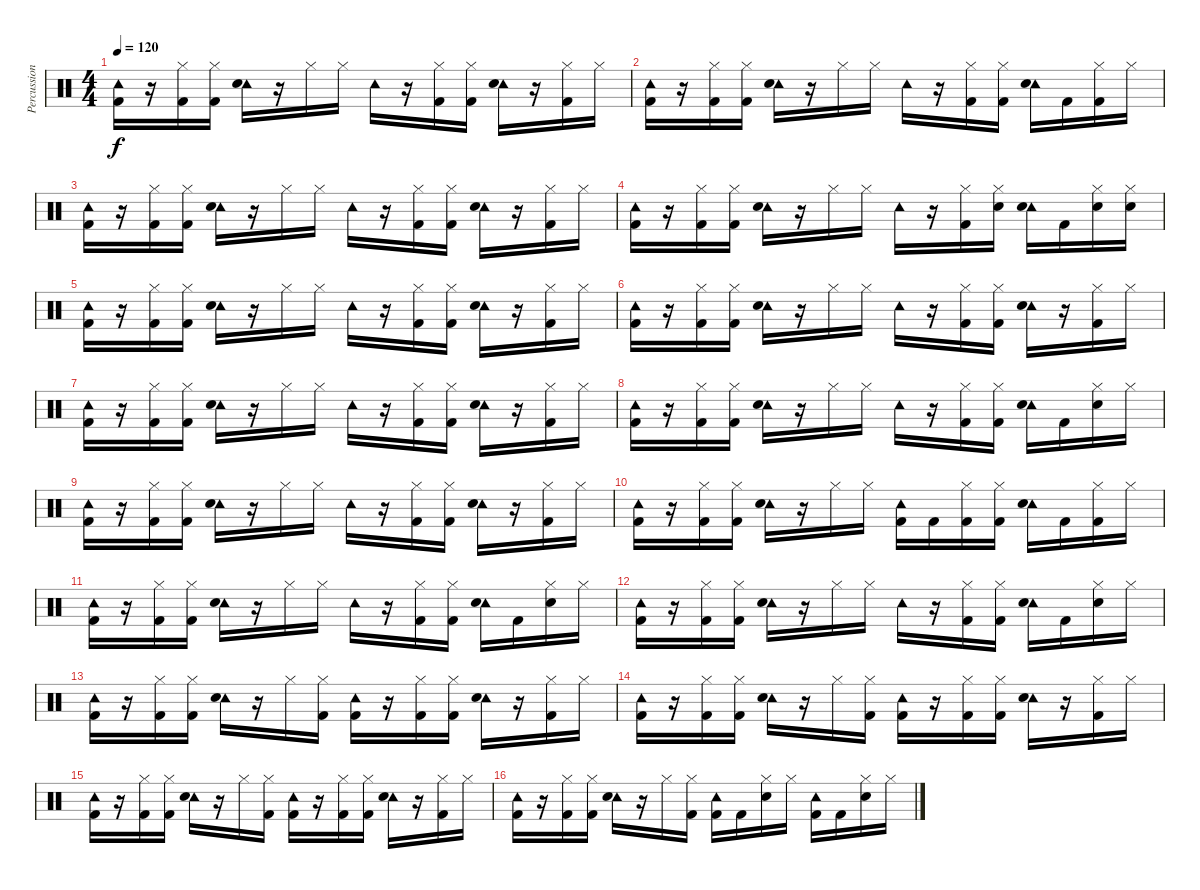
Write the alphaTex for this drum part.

\track ("Percussion" "Percussion") {instrument percussion}
\staff {score}
\articulation defaults
\ts (4 4)
\tempo 120
\clef neutral
\ks c
("Tambourine (hit)" "Kick (hit) 2").16{dy f} r.16 ("Hi-Hat (closed)" "Kick (hit) 2").16 ("Hi-Hat (closed)" "Kick (hit) 2").16 ("Tambourine (hit)" "Electric Snare (hit)").16 r.16 "Hi-Hat (closed)".16 "Hi-Hat (closed)".16 "Tambourine (hit)".16 r.16 ("Hi-Hat (closed)" "Kick (hit) 2").16 ("Hi-Hat (closed)" "Kick (hit) 2").16 ("Tambourine (hit)" "Electric Snare (hit)").16 r.16 ("Hi-Hat (closed)" "Kick (hit) 2").16 "Hi-Hat (closed)".16 |
("Tambourine (hit)" "Kick (hit) 2").16 r.16 ("Hi-Hat (closed)" "Kick (hit) 2").16 ("Hi-Hat (closed)" "Kick (hit) 2").16 ("Tambourine (hit)" "Electric Snare (hit)").16 r.16 "Hi-Hat (closed)".16 "Hi-Hat (closed)".16 "Tambourine (hit)".16 r.16 ("Hi-Hat (closed)" "Kick (hit) 2").16 ("Hi-Hat (closed)" "Kick (hit) 2").16 ("Tambourine (hit)" "Electric Snare (hit)").16 "Kick (hit) 2".16 ("Hi-Hat (closed)" "Kick (hit) 2").16 "Hi-Hat (closed)".16 |
("Tambourine (hit)" "Kick (hit) 2").16 r.16 ("Hi-Hat (closed)" "Kick (hit) 2").16 ("Hi-Hat (closed)" "Kick (hit) 2").16 ("Tambourine (hit)" "Electric Snare (hit)").16 r.16 "Hi-Hat (closed)".16 "Hi-Hat (closed)".16 "Tambourine (hit)".16 r.16 ("Hi-Hat (closed)" "Kick (hit) 2").16 ("Hi-Hat (closed)" "Kick (hit) 2").16 ("Tambourine (hit)" "Electric Snare (hit)").16 r.16 ("Hi-Hat (closed)" "Kick (hit) 2").16 "Hi-Hat (closed)".16 |
("Tambourine (hit)" "Kick (hit) 2").16 r.16 ("Hi-Hat (closed)" "Kick (hit) 2").16 ("Hi-Hat (closed)" "Kick (hit) 2").16 ("Tambourine (hit)" "Electric Snare (hit)").16 r.16 "Hi-Hat (closed)".16 "Hi-Hat (closed)".16 "Tambourine (hit)".16 r.16 ("Hi-Hat (closed)" "Kick (hit) 2").16 ("Hi-Hat (closed)" "Electric Snare (hit)").16 ("Tambourine (hit)" "Electric Snare (hit)").16 "Kick (hit) 2".16 ("Hi-Hat (closed)" "Electric Snare (hit)").16 ("Hi-Hat (closed)" "Electric Snare (hit)").16 |
("Tambourine (hit)" "Kick (hit) 2").16 r.16 ("Hi-Hat (closed)" "Kick (hit) 2").16 ("Hi-Hat (closed)" "Kick (hit) 2").16 ("Tambourine (hit)" "Electric Snare (hit)").16 r.16 "Hi-Hat (closed)".16 "Hi-Hat (closed)".16 "Tambourine (hit)".16 r.16 ("Hi-Hat (closed)" "Kick (hit) 2").16 ("Hi-Hat (closed)" "Kick (hit) 2").16 ("Tambourine (hit)" "Electric Snare (hit)").16 r.16 ("Hi-Hat (closed)" "Kick (hit) 2").16 "Hi-Hat (closed)".16 |
("Tambourine (hit)" "Kick (hit) 2").16 r.16 ("Hi-Hat (closed)" "Kick (hit) 2").16 ("Hi-Hat (closed)" "Kick (hit) 2").16 ("Tambourine (hit)" "Electric Snare (hit)").16 r.16 "Hi-Hat (closed)".16 "Hi-Hat (closed)".16 "Tambourine (hit)".16 r.16 ("Hi-Hat (closed)" "Kick (hit) 2").16 ("Hi-Hat (closed)" "Kick (hit) 2").16 ("Tambourine (hit)" "Electric Snare (hit)").16 r.16 ("Hi-Hat (closed)" "Kick (hit) 2").16 "Hi-Hat (closed)".16 |
("Tambourine (hit)" "Kick (hit) 2").16 r.16 ("Hi-Hat (closed)" "Kick (hit) 2").16 ("Hi-Hat (closed)" "Kick (hit) 2").16 ("Tambourine (hit)" "Electric Snare (hit)").16 r.16 "Hi-Hat (closed)".16 "Hi-Hat (closed)".16 "Tambourine (hit)".16 r.16 ("Hi-Hat (closed)" "Kick (hit) 2").16 ("Hi-Hat (closed)" "Kick (hit) 2").16 ("Tambourine (hit)" "Electric Snare (hit)").16 r.16 ("Hi-Hat (closed)" "Kick (hit) 2").16 "Hi-Hat (closed)".16 |
("Tambourine (hit)" "Kick (hit) 2").16 r.16 ("Hi-Hat (closed)" "Kick (hit) 2").16 ("Hi-Hat (closed)" "Kick (hit) 2").16 ("Tambourine (hit)" "Electric Snare (hit)").16 r.16 "Hi-Hat (closed)".16 "Hi-Hat (closed)".16 "Tambourine (hit)".16 r.16 ("Hi-Hat (closed)" "Kick (hit) 2").16 ("Hi-Hat (closed)" "Kick (hit) 2").16 ("Tambourine (hit)" "Electric Snare (hit)").16 "Kick (hit) 2".16 ("Hi-Hat (closed)" "Electric Snare (hit)").16 "Hi-Hat (closed)".16 |
("Tambourine (hit)" "Kick (hit) 2").16 r.16 ("Hi-Hat (closed)" "Kick (hit) 2").16 ("Hi-Hat (closed)" "Kick (hit) 2").16 ("Tambourine (hit)" "Electric Snare (hit)").16 r.16 "Hi-Hat (closed)".16 "Hi-Hat (closed)".16 "Tambourine (hit)".16 r.16 ("Hi-Hat (closed)" "Kick (hit) 2").16 ("Hi-Hat (closed)" "Kick (hit) 2").16 ("Tambourine (hit)" "Electric Snare (hit)").16 r.16 ("Hi-Hat (closed)" "Kick (hit) 2").16 "Hi-Hat (closed)".16 |
("Tambourine (hit)" "Kick (hit) 2").16 r.16 ("Hi-Hat (closed)" "Kick (hit) 2").16 ("Hi-Hat (closed)" "Kick (hit) 2").16 ("Tambourine (hit)" "Electric Snare (hit)").16 r.16 "Hi-Hat (closed)".16 "Hi-Hat (closed)".16 ("Tambourine (hit)" "Kick (hit) 2").16 "Kick (hit) 2".16 ("Hi-Hat (closed)" "Kick (hit) 2").16 ("Hi-Hat (closed)" "Kick (hit) 2").16 ("Tambourine (hit)" "Electric Snare (hit)").16 "Kick (hit) 2".16 ("Hi-Hat (closed)" "Kick (hit) 2").16 "Hi-Hat (closed)".16 |
("Tambourine (hit)" "Kick (hit) 2").16 r.16 ("Hi-Hat (closed)" "Kick (hit) 2").16 ("Hi-Hat (closed)" "Kick (hit) 2").16 ("Tambourine (hit)" "Electric Snare (hit)").16 r.16 "Hi-Hat (closed)".16 "Hi-Hat (closed)".16 "Tambourine (hit)".16 r.16 ("Hi-Hat (closed)" "Kick (hit) 2").16 ("Hi-Hat (closed)" "Kick (hit) 2").16 ("Tambourine (hit)" "Electric Snare (hit)").16 "Kick (hit) 2".16 ("Hi-Hat (closed)" "Electric Snare (hit)").16 "Hi-Hat (closed)".16 |
("Tambourine (hit)" "Kick (hit) 2").16 r.16 ("Hi-Hat (closed)" "Kick (hit) 2").16 ("Hi-Hat (closed)" "Kick (hit) 2").16 ("Tambourine (hit)" "Electric Snare (hit)").16 r.16 "Hi-Hat (closed)".16 "Hi-Hat (closed)".16 "Tambourine (hit)".16 r.16 ("Hi-Hat (closed)" "Kick (hit) 2").16 ("Hi-Hat (closed)" "Kick (hit) 2").16 ("Tambourine (hit)" "Electric Snare (hit)").16 "Kick (hit) 2".16 ("Hi-Hat (closed)" "Electric Snare (hit)").16 "Hi-Hat (closed)".16 |
("Tambourine (hit)" "Kick (hit) 2").16 r.16 ("Hi-Hat (closed)" "Kick (hit) 2").16 ("Hi-Hat (closed)" "Kick (hit) 2").16 ("Tambourine (hit)" "Electric Snare (hit)").16 r.16 "Hi-Hat (closed)".16 ("Hi-Hat (closed)" "Kick (hit) 2").16 ("Tambourine (hit)" "Kick (hit) 2").16 r.16 ("Hi-Hat (closed)" "Kick (hit) 2").16 ("Hi-Hat (closed)" "Kick (hit) 2").16 ("Tambourine (hit)" "Electric Snare (hit)").16 r.16 ("Hi-Hat (closed)" "Kick (hit) 2").16 "Hi-Hat (closed)".16 |
("Tambourine (hit)" "Kick (hit) 2").16 r.16 ("Hi-Hat (closed)" "Kick (hit) 2").16 ("Hi-Hat (closed)" "Kick (hit) 2").16 ("Tambourine (hit)" "Electric Snare (hit)").16 r.16 "Hi-Hat (closed)".16 ("Hi-Hat (closed)" "Kick (hit) 2").16 ("Tambourine (hit)" "Kick (hit) 2").16 r.16 ("Hi-Hat (closed)" "Kick (hit) 2").16 ("Hi-Hat (closed)" "Kick (hit) 2").16 ("Tambourine (hit)" "Electric Snare (hit)").16 r.16 ("Hi-Hat (closed)" "Kick (hit) 2").16 "Hi-Hat (closed)".16 |
("Tambourine (hit)" "Kick (hit) 2").16 r.16 ("Hi-Hat (closed)" "Kick (hit) 2").16 ("Hi-Hat (closed)" "Kick (hit) 2").16 ("Tambourine (hit)" "Electric Snare (hit)").16 r.16 "Hi-Hat (closed)".16 ("Hi-Hat (closed)" "Kick (hit) 2").16 ("Tambourine (hit)" "Kick (hit) 2").16 r.16 ("Hi-Hat (closed)" "Kick (hit) 2").16 ("Hi-Hat (closed)" "Kick (hit) 2").16 ("Tambourine (hit)" "Electric Snare (hit)").16 r.16 ("Hi-Hat (closed)" "Kick (hit) 2").16 "Hi-Hat (closed)".16 |
("Tambourine (hit)" "Kick (hit) 2").16 r.16 ("Hi-Hat (closed)" "Kick (hit) 2").16 ("Hi-Hat (closed)" "Kick (hit) 2").16 ("Tambourine (hit)" "Electric Snare (hit)").16 r.16 "Hi-Hat (closed)".16 ("Hi-Hat (closed)" "Kick (hit) 2").16 ("Tambourine (hit)" "Kick (hit) 2").16 "Kick (hit) 2".16 ("Hi-Hat (closed)" "Electric Snare (hit)").16 "Hi-Hat (closed)".16 ("Tambourine (hit)" "Kick (hit) 2").16 "Kick (hit) 2".16 ("Hi-Hat (closed)" "Electric Snare (hit)").16 "Hi-Hat (closed)".16
